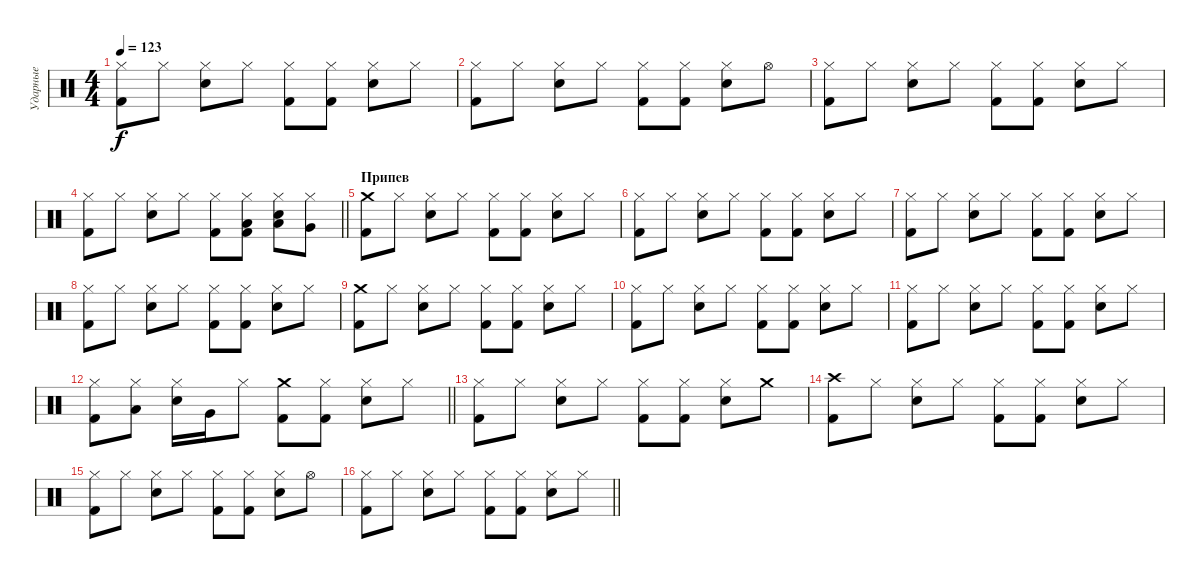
\track ("Ударные" "Ударные") {instrument percussion}
\staff {score}
\articulation defaults
\ts (4 4)
\tempo 123
\clef neutral
\ks c
("Hi-Hat (closed)" "Kick (hit) 2").8{dy f} "Hi-Hat (closed)".8 ("Hi-Hat (closed)" "Electric Snare (hit)").8 "Hi-Hat (closed)".8 ("Hi-Hat (closed)" "Kick (hit) 2").8 ("Hi-Hat (closed)" "Kick (hit) 2").8 ("Hi-Hat (closed)" "Electric Snare (hit)").8 "Hi-Hat (closed)".8 |
("Hi-Hat (closed)" "Kick (hit) 2").8 "Hi-Hat (closed)".8 ("Hi-Hat (closed)" "Electric Snare (hit)").8 "Hi-Hat (closed)".8 ("Hi-Hat (closed)" "Kick (hit) 2").8 ("Hi-Hat (closed)" "Kick (hit) 2").8 ("Hi-Hat (closed)" "Electric Snare (hit)").8 "Hi-Hat (open)".8 |
("Hi-Hat (closed)" "Kick (hit) 2").8 "Hi-Hat (closed)".8 ("Hi-Hat (closed)" "Electric Snare (hit)").8 "Hi-Hat (closed)".8 ("Hi-Hat (closed)" "Kick (hit) 2").8 ("Hi-Hat (closed)" "Kick (hit) 2").8 ("Hi-Hat (closed)" "Electric Snare (hit)").8 "Hi-Hat (closed)".8 |
\barLineRight lightlight
("Hi-Hat (closed)" "Kick (hit) 2").8 "Hi-Hat (closed)".8 ("Hi-Hat (closed)" "Electric Snare (hit)").8 "Hi-Hat (closed)".8 ("Hi-Hat (closed)" "Kick (hit) 2").8 ("Hi-Hat (closed)" "Low Tom (hit)" "Kick (hit) 2").8 ("Hi-Hat (closed)" "Electric Snare (hit)" "Low Tom (hit)").8 ("Hi-Hat (closed)" "Very Low Tom (hit)").8 |
\section ("" "Припев")
("Crash medium (hit)" "Kick (hit) 2").8 "Hi-Hat (closed)".8 ("Hi-Hat (closed)" "Electric Snare (hit)").8 "Hi-Hat (closed)".8 ("Hi-Hat (closed)" "Kick (hit) 2").8 ("Hi-Hat (closed)" "Kick (hit) 2").8 ("Hi-Hat (closed)" "Electric Snare (hit)").8 "Hi-Hat (closed)".8 |
("Hi-Hat (closed)" "Kick (hit) 2").8 "Hi-Hat (closed)".8 ("Hi-Hat (closed)" "Electric Snare (hit)").8 "Hi-Hat (closed)".8 ("Hi-Hat (closed)" "Kick (hit) 2").8 ("Hi-Hat (closed)" "Kick (hit) 2").8 ("Hi-Hat (closed)" "Electric Snare (hit)").8 "Hi-Hat (closed)".8 |
("Hi-Hat (closed)" "Kick (hit) 2").8 "Hi-Hat (closed)".8 ("Hi-Hat (closed)" "Electric Snare (hit)").8 "Hi-Hat (closed)".8 ("Hi-Hat (closed)" "Kick (hit) 2").8 ("Hi-Hat (closed)" "Kick (hit) 2").8 ("Hi-Hat (closed)" "Electric Snare (hit)").8 "Hi-Hat (closed)".8 |
("Hi-Hat (closed)" "Kick (hit) 2").8 "Hi-Hat (closed)".8 ("Hi-Hat (closed)" "Electric Snare (hit)").8 "Hi-Hat (closed)".8 ("Hi-Hat (closed)" "Kick (hit) 2").8 ("Hi-Hat (closed)" "Kick (hit) 2").8 ("Hi-Hat (closed)" "Electric Snare (hit)").8 "Hi-Hat (closed)".8 |
("Crash medium (hit)" "Kick (hit) 2").8 "Hi-Hat (closed)".8 ("Hi-Hat (closed)" "Electric Snare (hit)").8 "Hi-Hat (closed)".8 ("Hi-Hat (closed)" "Kick (hit) 2").8 ("Hi-Hat (closed)" "Kick (hit) 2").8 ("Hi-Hat (closed)" "Electric Snare (hit)").8 "Hi-Hat (closed)".8 |
("Hi-Hat (closed)" "Kick (hit) 2").8 "Hi-Hat (closed)".8 ("Hi-Hat (closed)" "Electric Snare (hit)").8 "Hi-Hat (closed)".8 ("Hi-Hat (closed)" "Kick (hit) 2").8 ("Hi-Hat (closed)" "Kick (hit) 2").8 ("Hi-Hat (closed)" "Electric Snare (hit)").8 "Hi-Hat (closed)".8 |
("Hi-Hat (closed)" "Kick (hit) 2").8 "Hi-Hat (closed)".8 ("Hi-Hat (closed)" "Electric Snare (hit)").8 "Hi-Hat (closed)".8 ("Hi-Hat (closed)" "Kick (hit) 2").8 ("Hi-Hat (closed)" "Kick (hit) 2").8 ("Hi-Hat (closed)" "Electric Snare (hit)").8 "Hi-Hat (closed)".8 |
\barLineRight lightlight
("Hi-Hat (closed)" "Kick (hit) 2").8 ("Hi-Hat (closed)" "Low Tom (hit)").8 ("Hi-Hat (closed)" "Electric Snare (hit)").16 "Very Low Tom (hit)".16 "Hi-Hat (closed)".8 ("Crash medium (hit)" "Kick (hit) 2").8 ("Hi-Hat (closed)" "Kick (hit) 2").8 ("Hi-Hat (closed)" "Electric Snare (hit)").8 "Hi-Hat (closed)".8 |
("Hi-Hat (closed)" "Kick (hit) 2").8 "Hi-Hat (closed)".8 ("Hi-Hat (closed)" "Electric Snare (hit)").8 "Hi-Hat (closed)".8 ("Hi-Hat (closed)" "Kick (hit) 2").8 ("Hi-Hat (closed)" "Kick (hit) 2").8 ("Hi-Hat (closed)" "Electric Snare (hit)").8 "Crash medium (hit)".8 |
("Crash high (hit)" "Kick (hit) 2").8 "Hi-Hat (closed)".8 ("Hi-Hat (closed)" "Electric Snare (hit)").8 "Hi-Hat (closed)".8 ("Hi-Hat (closed)" "Kick (hit) 2").8 ("Hi-Hat (closed)" "Kick (hit) 2").8 ("Hi-Hat (closed)" "Electric Snare (hit)").8 "Hi-Hat (closed)".8 |
("Hi-Hat (closed)" "Kick (hit) 2").8 "Hi-Hat (closed)".8 ("Hi-Hat (closed)" "Electric Snare (hit)").8 "Hi-Hat (closed)".8 ("Hi-Hat (closed)" "Kick (hit) 2").8 ("Hi-Hat (closed)" "Kick (hit) 2").8 ("Hi-Hat (closed)" "Electric Snare (hit)").8 "Hi-Hat (open)".8 |
\barLineRight lightlight
("Hi-Hat (closed)" "Kick (hit) 2").8 "Hi-Hat (closed)".8 ("Hi-Hat (closed)" "Electric Snare (hit)").8 "Hi-Hat (closed)".8 ("Hi-Hat (closed)" "Kick (hit) 2").8 ("Hi-Hat (closed)" "Kick (hit) 2").8 ("Hi-Hat (closed)" "Electric Snare (hit)").8 "Hi-Hat (closed)".8
